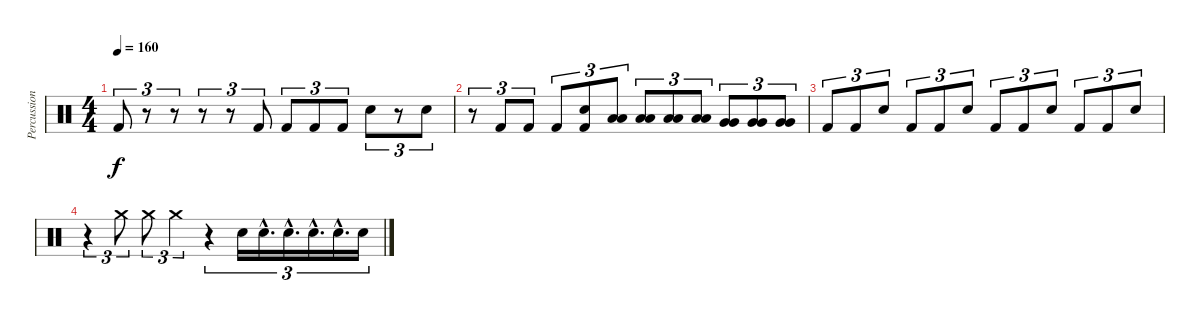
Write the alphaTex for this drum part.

\track ("Percussions" "Percussion") {instrument percussion}
\staff {score}
\articulation defaults
\ts (4 4)
\tempo 160
\clef neutral
\ks c "Kick (hit) 2".8{tu (3 2) dy f}
r.8{tu (3 2)} r.8{tu (3 2)} r.8{tu (3 2)} r.8{tu (3 2)} "Kick (hit) 2".8{tu (3 2)} "Kick (hit) 2".8{tu (3 2)} "Kick (hit) 2".8{tu (3 2)} "Kick (hit) 2".8{tu (3 2)} "Snare (hit) 2".8{tu (3 2)} r.8{tu (3 2)} "Snare (hit) 2".8{tu (3 2)} |
r.8{tu (3 2)} "Kick (hit) 2".8{tu (3 2)} "Kick (hit) 2".8{tu (3 2)} "Kick (hit) 2".8{tu (3 2)} ("Snare (hit) 2" "Kick (hit) 2").8{tu (3 2)} ("Low Tom (hit)" "Low Tom (hit)").8{tu (3 2)} ("Low Tom (hit)" "Low Tom (hit)").8{tu (3 2)} ("Low Tom (hit)" "Low Tom (hit)").8{tu (3 2)} ("Low Tom (hit)" "Low Tom (hit)").8{tu (3 2)} ("Very Low Tom (hit)" "Very Low Tom (hit)").8{tu (3 2)} ("Very Low Tom (hit)" "Very Low Tom (hit)").8{tu (3 2)} ("Very Low Tom (hit)" "Very Low Tom (hit)").8{tu (3 2)} |
"Kick (hit) 2".8{tu (3 2)} "Kick (hit) 2".8{tu (3 2)} "Snare (hit) 2".8{tu (3 2)} "Kick (hit) 2".8{tu (3 2)} "Kick (hit) 2".8{tu (3 2)} "Snare (hit) 2".8{tu (3 2)} "Kick (hit) 2".8{tu (3 2)} "Kick (hit) 2".8{tu (3 2)} "Snare (hit) 2".8{tu (3 2)} "Kick (hit) 2".8{tu (3 2)} "Kick (hit) 2".8{tu (3 2)} "Snare (hit) 2".8{tu (3 2)} |
r.4{tu (3 2)} "Crash medium (hit)".8{tu (3 2)} "Crash medium (hit)".8{tu (3 2)} "Crash medium (hit)".4{tu (3 2)} r.4{tu (3 2)} "Electric Snare (hit)".16{tu (3 2)} "Electric Snare (hit)"{hac}.16{d tu (3 2)} "Electric Snare (hit)"{hac}.16{d tu (3 2)} "Electric Snare (hit)"{hac}.16{d tu (3 2)} "Electric Snare (hit)"{hac}.16{d tu (3 2)} "Electric Snare (hit)".16{tu (3 2)}
